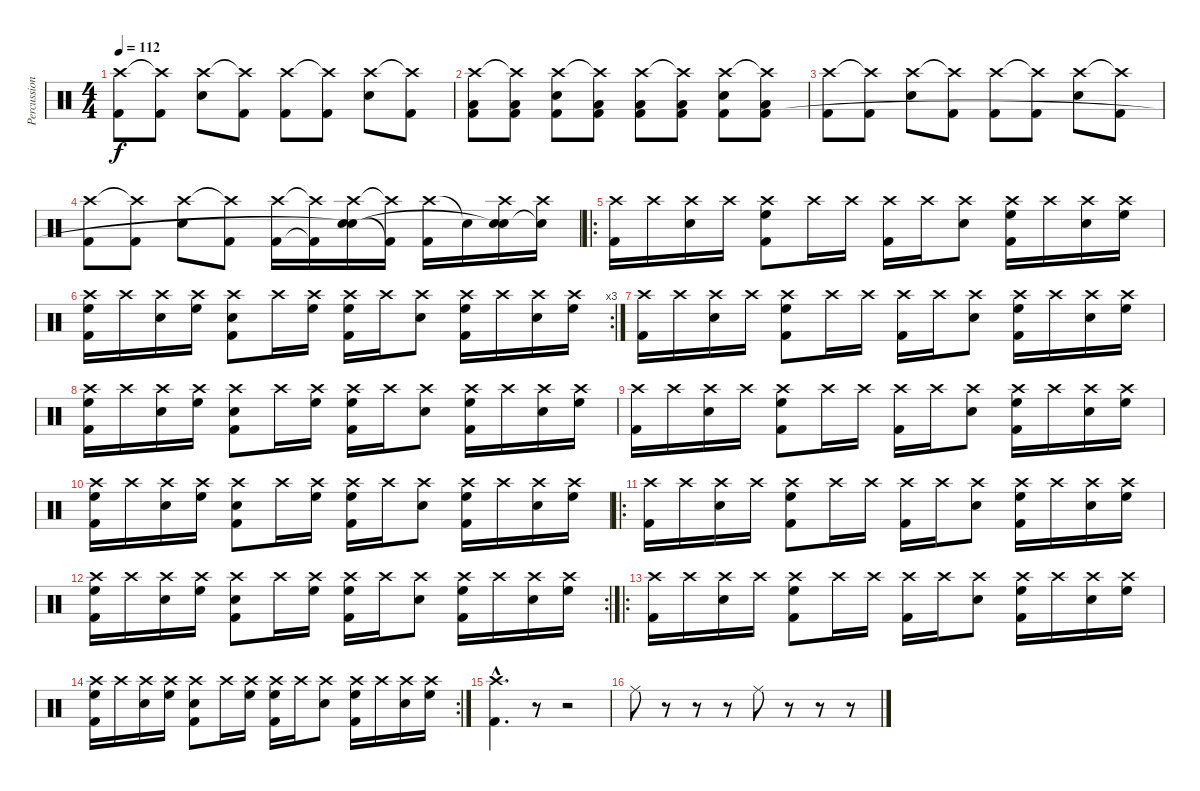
\track ("Percussion" "Percussion") {instrument percussion}
\staff {score}
\articulation defaults
\ts (4 4)
\tempo 112
\clef neutral
\ks c
("Crash high (hit)" "Kick (hit) 2").8{dy f} ("Crash high (hit)"{t} "Kick (hit) 2").8 ("Crash high (hit)" "Snare (hit) 2").8 ("Crash high (hit)"{t} "Kick (hit) 2").8 ("Crash high (hit)" "Kick (hit) 2").8 ("Crash high (hit)"{t} "Kick (hit) 2").8 ("Crash high (hit)" "Snare (hit) 2").8 ("Crash high (hit)"{t} "Kick (hit) 2").8 |
("Crash high (hit)" "Low Tom (hit)" "Kick (hit) 2").8 ("Crash high (hit)"{t} "Low Tom (hit)" "Kick (hit) 2").8 ("Crash high (hit)" "Snare (hit) 2" "Kick (hit) 2").8 ("Crash high (hit)"{t} "Low Tom (hit)" "Kick (hit) 2").8 ("Crash high (hit)" "Low Tom (hit)" "Kick (hit) 2").8 ("Crash high (hit)"{t} "Low Tom (hit)" "Kick (hit) 2").8 ("Crash high (hit)" "Snare (hit) 2" "Kick (hit) 2").8 ("Crash high (hit)"{t} "Low Tom (hit)" "Kick (hit) 2").8 |
("Crash high (hit)" "Kick (hit) 2").8 ("Crash high (hit)"{t} "Kick (hit) 2").8 ("Crash high (hit)" "Snare (hit) 2").8 ("Crash high (hit)"{t} "Kick (hit) 2").8 ("Crash high (hit)" "Kick (hit) 2").8 ("Crash high (hit)"{t} "Kick (hit) 2").8 ("Crash high (hit)" "Snare (hit) 2").8 ("Crash high (hit)"{t} "Kick (hit) 2").8 |
("Crash high (hit)" "Kick (hit) 2").8 ("Crash high (hit)"{t} "Kick (hit) 2").8 ("Crash high (hit)" "Snare (hit) 2").8 ("Crash high (hit)"{t} "Kick (hit) 2").8 ("Crash high (hit)" "Kick (hit) 2").16 ("Crash high (hit)"{t} "Kick (hit) 2"{t}).16 ("Crash high (hit)" "Snare (hit) 2" "Snare (hit)"{t}).16 ("Crash high (hit)"{t} "Kick (hit) 2"{t}).16 ("Crash high (hit)" "Kick (hit) 2").16 "Snare (hit)"{t}.16 ("Crash high (hit)" "Snare (hit) 2" "Snare (hit)"{t}).16 ("Crash high (hit)" "Snare (hit)"{t}).16 |
\ro
("Crash high (hit)" "Kick (hit) 2").16 "Crash high (hit)".16 ("Crash high (hit)" "Snare (hit) 2").16 "Crash high (hit)".16 ("Crash high (hit)" "High Floor Tom (hit)" "Kick (hit) 2").8 "Crash high (hit)".16 "Crash high (hit)".16 ("Crash high (hit)" "Kick (hit) 2").16 "Crash high (hit)".16 ("Crash high (hit)" "Snare (hit) 2").8 ("Crash high (hit)" "High Floor Tom (hit)" "Kick (hit) 2").16 "Crash high (hit)".16 ("Crash high (hit)" "Snare (hit) 2").16 ("Crash high (hit)" "High Floor Tom (hit)").16 |
\rc 3
("Crash high (hit)" "High Floor Tom (hit)" "Kick (hit) 2").16 "Crash high (hit)".16 ("Crash high (hit)" "Snare (hit) 2").16 ("Crash high (hit)" "High Floor Tom (hit)").16 ("Crash high (hit)" "Snare (hit) 2" "Kick (hit) 2").8 "Crash high (hit)".16 ("Crash high (hit)" "High Floor Tom (hit)").16 ("Crash high (hit)" "High Floor Tom (hit)" "Kick (hit) 2").16 "Crash high (hit)".16 ("Crash high (hit)" "Snare (hit) 2").8 ("Crash high (hit)" "High Floor Tom (hit)" "Kick (hit) 2").16 "Crash high (hit)".16 ("Crash high (hit)" "Snare (hit) 2").16 ("Crash high (hit)" "High Floor Tom (hit)").16 |
("Crash high (hit)" "Kick (hit) 2").16 "Crash high (hit)".16 ("Crash high (hit)" "Snare (hit) 2").16 "Crash high (hit)".16 ("Crash high (hit)" "High Floor Tom (hit)" "Kick (hit) 2").8 "Crash high (hit)".16 "Crash high (hit)".16 ("Crash high (hit)" "Kick (hit) 2").16 "Crash high (hit)".16 ("Crash high (hit)" "Snare (hit) 2").8 ("Crash high (hit)" "High Floor Tom (hit)" "Kick (hit) 2").16 "Crash high (hit)".16 ("Crash high (hit)" "Snare (hit) 2").16 ("Crash high (hit)" "High Floor Tom (hit)").16 |
("Crash high (hit)" "High Floor Tom (hit)" "Kick (hit) 2").16 "Crash high (hit)".16 ("Crash high (hit)" "Snare (hit) 2").16 ("Crash high (hit)" "High Floor Tom (hit)").16 ("Crash high (hit)" "Snare (hit) 2" "Kick (hit) 2").8 "Crash high (hit)".16 ("Crash high (hit)" "High Floor Tom (hit)").16 ("Crash high (hit)" "High Floor Tom (hit)" "Kick (hit) 2").16 "Crash high (hit)".16 ("Crash high (hit)" "Snare (hit) 2").8 ("Crash high (hit)" "High Floor Tom (hit)" "Kick (hit) 2").16 "Crash high (hit)".16 ("Crash high (hit)" "Snare (hit) 2").16 ("Crash high (hit)" "High Floor Tom (hit)").16 |
("Crash high (hit)" "Kick (hit) 2").16 "Crash high (hit)".16 ("Crash high (hit)" "Snare (hit) 2").16 "Crash high (hit)".16 ("Crash high (hit)" "High Floor Tom (hit)" "Kick (hit) 2").8 "Crash high (hit)".16 "Crash high (hit)".16 ("Crash high (hit)" "Kick (hit) 2").16 "Crash high (hit)".16 ("Crash high (hit)" "Snare (hit) 2").8 ("Crash high (hit)" "High Floor Tom (hit)" "Kick (hit) 2").16 "Crash high (hit)".16 ("Crash high (hit)" "Snare (hit) 2").16 ("Crash high (hit)" "High Floor Tom (hit)").16 |
("Crash high (hit)" "High Floor Tom (hit)" "Kick (hit) 2").16 "Crash high (hit)".16 ("Crash high (hit)" "Snare (hit) 2").16 ("Crash high (hit)" "High Floor Tom (hit)").16 ("Crash high (hit)" "Snare (hit) 2" "Kick (hit) 2").8 "Crash high (hit)".16 ("Crash high (hit)" "High Floor Tom (hit)").16 ("Crash high (hit)" "High Floor Tom (hit)" "Kick (hit) 2").16 "Crash high (hit)".16 ("Crash high (hit)" "Snare (hit) 2").8 ("Crash high (hit)" "High Floor Tom (hit)" "Kick (hit) 2").16 "Crash high (hit)".16 ("Crash high (hit)" "Snare (hit) 2").16 ("Crash high (hit)" "High Floor Tom (hit)").16 |
\ro
("Crash high (hit)" "Kick (hit) 2").16 "Crash high (hit)".16 ("Crash high (hit)" "Snare (hit) 2").16 "Crash high (hit)".16 ("Crash high (hit)" "High Floor Tom (hit)" "Kick (hit) 2").8 "Crash high (hit)".16 "Crash high (hit)".16 ("Crash high (hit)" "Kick (hit) 2").16 "Crash high (hit)".16 ("Crash high (hit)" "Snare (hit) 2").8 ("Crash high (hit)" "High Floor Tom (hit)" "Kick (hit) 2").16 "Crash high (hit)".16 ("Crash high (hit)" "Snare (hit) 2").16 ("Crash high (hit)" "High Floor Tom (hit)").16 |
\rc 2
("Crash high (hit)" "High Floor Tom (hit)" "Kick (hit) 2").16 "Crash high (hit)".16 ("Crash high (hit)" "Snare (hit) 2").16 ("Crash high (hit)" "High Floor Tom (hit)").16 ("Crash high (hit)" "Snare (hit) 2" "Kick (hit) 2").8 "Crash high (hit)".16 ("Crash high (hit)" "High Floor Tom (hit)").16 ("Crash high (hit)" "High Floor Tom (hit)" "Kick (hit) 2").16 "Crash high (hit)".16 ("Crash high (hit)" "Snare (hit) 2").8 ("Crash high (hit)" "High Floor Tom (hit)" "Kick (hit) 2").16 "Crash high (hit)".16 ("Crash high (hit)" "Snare (hit) 2").16 ("Crash high (hit)" "High Floor Tom (hit)").16 |
\ro
("Crash high (hit)" "Kick (hit) 2").16 "Crash high (hit)".16 ("Crash high (hit)" "Snare (hit) 2").16 "Crash high (hit)".16 ("Crash high (hit)" "High Floor Tom (hit)" "Kick (hit) 2").8 "Crash high (hit)".16 "Crash high (hit)".16 ("Crash high (hit)" "Kick (hit) 2").16 "Crash high (hit)".16 ("Crash high (hit)" "Snare (hit) 2").8 ("Crash high (hit)" "High Floor Tom (hit)" "Kick (hit) 2").16 "Crash high (hit)".16 ("Crash high (hit)" "Snare (hit) 2").16 ("Crash high (hit)" "High Floor Tom (hit)").16 |
\rc 2
("Crash high (hit)" "High Floor Tom (hit)" "Kick (hit) 2").16 "Crash high (hit)".16 ("Crash high (hit)" "Snare (hit) 2").16 ("Crash high (hit)" "High Floor Tom (hit)").16 ("Crash high (hit)" "Snare (hit) 2" "Kick (hit) 2").8 "Crash high (hit)".16 ("Crash high (hit)" "High Floor Tom (hit)").16 ("Crash high (hit)" "High Floor Tom (hit)" "Kick (hit) 2").16 "Crash high (hit)".16 ("Crash high (hit)" "Snare (hit) 2").8 ("Crash high (hit)" "High Floor Tom (hit)" "Kick (hit) 2").16 "Crash high (hit)".16 ("Crash high (hit)" "Snare (hit) 2").16 ("Crash high (hit)" "High Floor Tom (hit)").16 |
("Crash high (hit)"{hac} "Kick (hit) 2"{hac}).4{d} r.8 r.2 |
"Ride (middle)".8 r.8 r.8 r.8 "Ride (middle)".8 r.8 r.8 r.8
